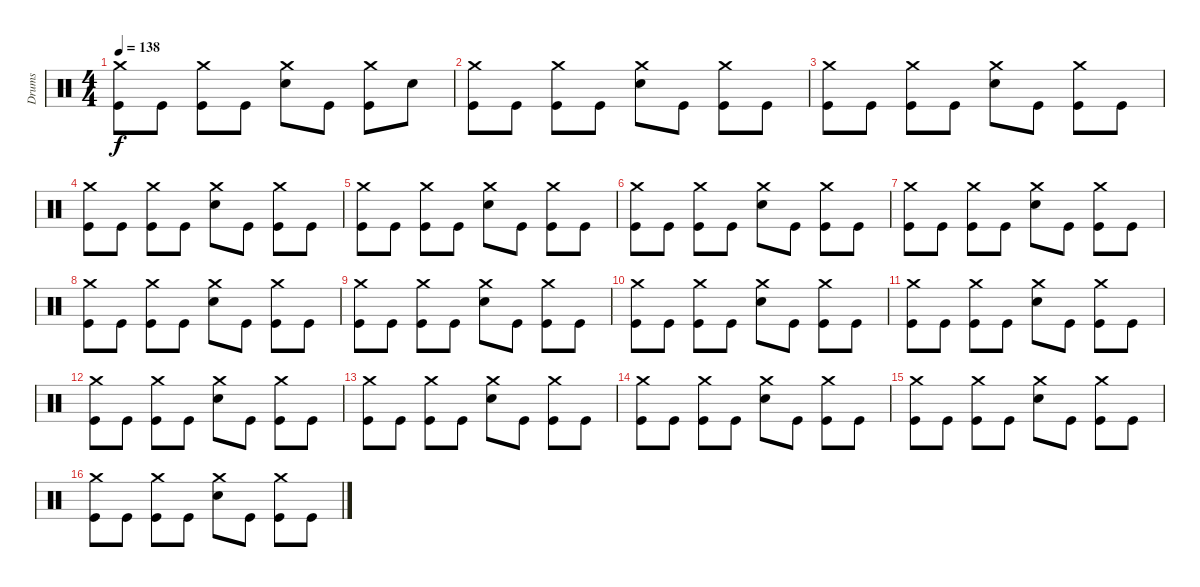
\track ("Drums" "Drums") {instrument percussion}
\staff {score}
\articulation defaults
\ts (4 4)
\tempo 138
\clef neutral
\ks c
("Crash medium (hit)" "Kick (hit)").8{dy f} "Kick (hit)".8 ("Crash medium (hit)" "Kick (hit)").8 "Kick (hit)".8 ("Crash medium (hit)" "Snare (hit) 2").8 "Kick (hit)".8 ("Crash medium (hit)" "Kick (hit)").8 "Snare (hit) 2".8 |
("Crash medium (hit)" "Kick (hit)").8 "Kick (hit)".8 ("Crash medium (hit)" "Kick (hit)").8 "Kick (hit)".8 ("Crash medium (hit)" "Snare (hit) 2").8 "Kick (hit)".8 ("Crash medium (hit)" "Kick (hit)").8 "Kick (hit)".8 |
("Crash medium (hit)" "Kick (hit)").8 "Kick (hit)".8 ("Crash medium (hit)" "Kick (hit)").8 "Kick (hit)".8 ("Crash medium (hit)" "Snare (hit) 2").8 "Kick (hit)".8 ("Crash medium (hit)" "Kick (hit)").8 "Kick (hit)".8 |
("Crash medium (hit)" "Kick (hit)").8 "Kick (hit)".8 ("Crash medium (hit)" "Kick (hit)").8 "Kick (hit)".8 ("Crash medium (hit)" "Snare (hit) 2").8 "Kick (hit)".8 ("Crash medium (hit)" "Kick (hit)").8 "Kick (hit)".8 |
("Crash medium (hit)" "Kick (hit)").8 "Kick (hit)".8 ("Crash medium (hit)" "Kick (hit)").8 "Kick (hit)".8 ("Crash medium (hit)" "Snare (hit) 2").8 "Kick (hit)".8 ("Crash medium (hit)" "Kick (hit)").8 "Kick (hit)".8 |
("Crash medium (hit)" "Kick (hit)").8 "Kick (hit)".8 ("Crash medium (hit)" "Kick (hit)").8 "Kick (hit)".8 ("Crash medium (hit)" "Snare (hit) 2").8 "Kick (hit)".8 ("Crash medium (hit)" "Kick (hit)").8 "Kick (hit)".8 |
("Crash medium (hit)" "Kick (hit)").8 "Kick (hit)".8 ("Crash medium (hit)" "Kick (hit)").8 "Kick (hit)".8 ("Crash medium (hit)" "Snare (hit) 2").8 "Kick (hit)".8 ("Crash medium (hit)" "Kick (hit)").8 "Kick (hit)".8 |
("Crash medium (hit)" "Kick (hit)").8 "Kick (hit)".8 ("Crash medium (hit)" "Kick (hit)").8 "Kick (hit)".8 ("Crash medium (hit)" "Snare (hit) 2").8 "Kick (hit)".8 ("Crash medium (hit)" "Kick (hit)").8 "Kick (hit)".8 |
("Crash medium (hit)" "Kick (hit)").8 "Kick (hit)".8 ("Crash medium (hit)" "Kick (hit)").8 "Kick (hit)".8 ("Crash medium (hit)" "Snare (hit) 2").8 "Kick (hit)".8 ("Crash medium (hit)" "Kick (hit)").8 "Kick (hit)".8 |
("Crash medium (hit)" "Kick (hit)").8 "Kick (hit)".8 ("Crash medium (hit)" "Kick (hit)").8 "Kick (hit)".8 ("Crash medium (hit)" "Snare (hit) 2").8 "Kick (hit)".8 ("Crash medium (hit)" "Kick (hit)").8 "Kick (hit)".8 |
("Crash medium (hit)" "Kick (hit)").8 "Kick (hit)".8 ("Crash medium (hit)" "Kick (hit)").8 "Kick (hit)".8 ("Crash medium (hit)" "Snare (hit) 2").8 "Kick (hit)".8 ("Crash medium (hit)" "Kick (hit)").8 "Kick (hit)".8 |
("Crash medium (hit)" "Kick (hit)").8 "Kick (hit)".8 ("Crash medium (hit)" "Kick (hit)").8 "Kick (hit)".8 ("Crash medium (hit)" "Snare (hit) 2").8 "Kick (hit)".8 ("Crash medium (hit)" "Kick (hit)").8 "Kick (hit)".8 |
("Crash medium (hit)" "Kick (hit)").8 "Kick (hit)".8 ("Crash medium (hit)" "Kick (hit)").8 "Kick (hit)".8 ("Crash medium (hit)" "Snare (hit) 2").8 "Kick (hit)".8 ("Crash medium (hit)" "Kick (hit)").8 "Kick (hit)".8 |
("Crash medium (hit)" "Kick (hit)").8 "Kick (hit)".8 ("Crash medium (hit)" "Kick (hit)").8 "Kick (hit)".8 ("Crash medium (hit)" "Snare (hit) 2").8 "Kick (hit)".8 ("Crash medium (hit)" "Kick (hit)").8 "Kick (hit)".8 |
("Crash medium (hit)" "Kick (hit)").8 "Kick (hit)".8 ("Crash medium (hit)" "Kick (hit)").8 "Kick (hit)".8 ("Crash medium (hit)" "Snare (hit) 2").8 "Kick (hit)".8 ("Crash medium (hit)" "Kick (hit)").8 "Kick (hit)".8 |
("Crash medium (hit)" "Kick (hit)").8 "Kick (hit)".8 ("Crash medium (hit)" "Kick (hit)").8 "Kick (hit)".8 ("Crash medium (hit)" "Snare (hit) 2").8 "Kick (hit)".8 ("Crash medium (hit)" "Kick (hit)").8 "Kick (hit)".8
